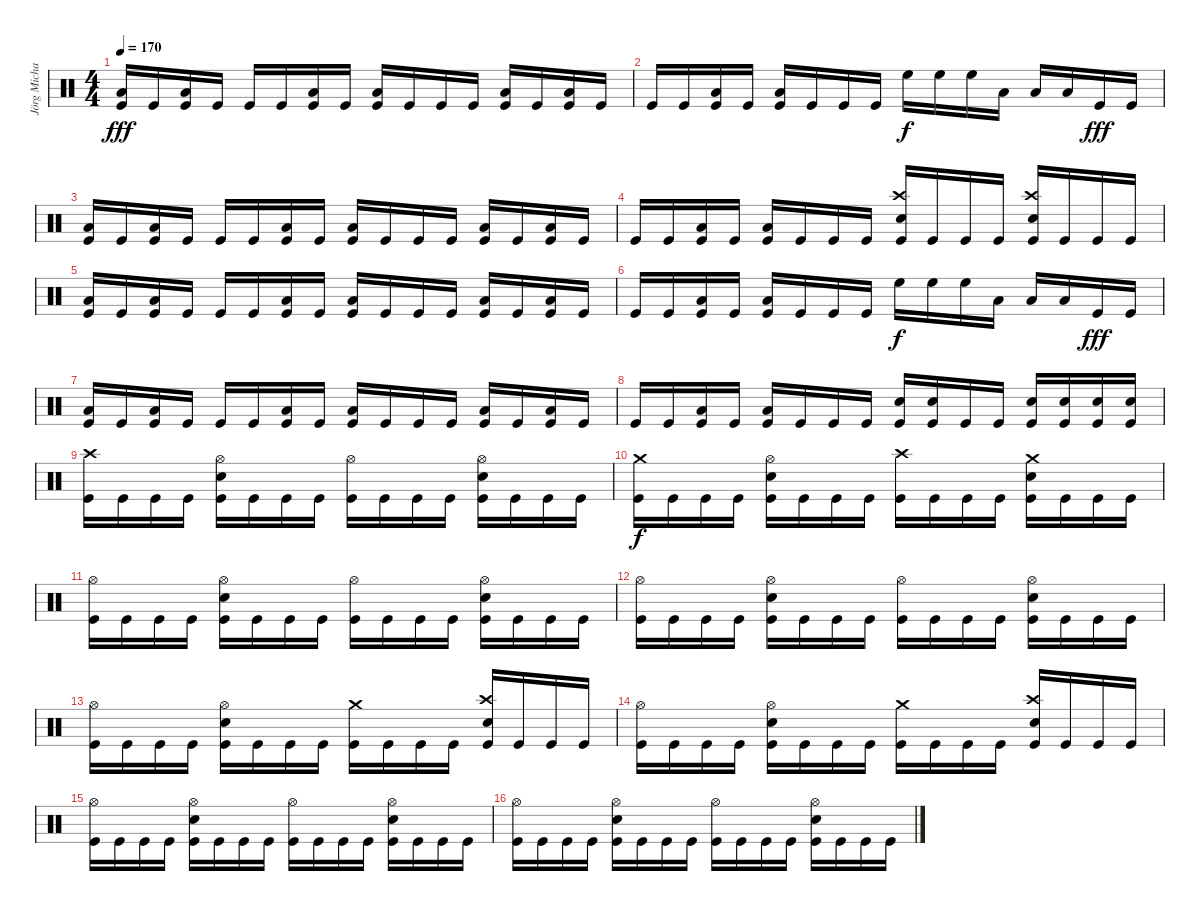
\track ("Jörg Michael" "Jörg Micha") {instrument percussion}
\staff {score}
\articulation defaults
\ts (4 4)
\tempo 170
\clef neutral
\ks c
("Low Floor Tom (hit)" "Kick (hit)").16{dy fff} "Kick (hit)".16 ("Low Floor Tom (hit)" "Kick (hit)").16 "Kick (hit)".16 "Kick (hit)".16 "Kick (hit)".16 ("Low Floor Tom (hit)" "Kick (hit)").16 "Kick (hit)".16 ("Low Floor Tom (hit)" "Kick (hit)").16 "Kick (hit)".16 "Kick (hit)".16 "Kick (hit)".16 ("Low Floor Tom (hit)" "Kick (hit)").16 "Kick (hit)".16 ("Low Floor Tom (hit)" "Kick (hit)").16 "Kick (hit)".16 |
"Kick (hit)".16 "Kick (hit)".16 ("Low Floor Tom (hit)" "Kick (hit)").16 "Kick (hit)".16 ("Low Floor Tom (hit)" "Kick (hit)").16 "Kick (hit)".16 "Kick (hit)".16 "Kick (hit)".16 "High Floor Tom (hit)".16{dy f} "High Floor Tom (hit)".16 "High Floor Tom (hit)".16 "Low Tom (hit)".16 "Low Tom (hit)".16 "Low Tom (hit)".16 "Kick (hit)".16{dy fff} "Kick (hit)".16 |
("Low Floor Tom (hit)" "Kick (hit)").16 "Kick (hit)".16 ("Low Floor Tom (hit)" "Kick (hit)").16 "Kick (hit)".16 "Kick (hit)".16 "Kick (hit)".16 ("Low Floor Tom (hit)" "Kick (hit)").16 "Kick (hit)".16 ("Low Floor Tom (hit)" "Kick (hit)").16 "Kick (hit)".16 "Kick (hit)".16 "Kick (hit)".16 ("Low Floor Tom (hit)" "Kick (hit)").16 "Kick (hit)".16 ("Low Floor Tom (hit)" "Kick (hit)").16 "Kick (hit)".16 |
"Kick (hit)".16 "Kick (hit)".16 ("Low Floor Tom (hit)" "Kick (hit)").16 "Kick (hit)".16 ("Low Floor Tom (hit)" "Kick (hit)").16 "Kick (hit)".16 "Kick (hit)".16 "Kick (hit)".16 ("Crash high (hit)" "Electric Snare (hit)" "Kick (hit)").16 "Kick (hit)".16 "Kick (hit)".16 "Kick (hit)".16 ("Crash high (hit)" "Electric Snare (hit)" "Kick (hit)").16 "Kick (hit)".16 "Kick (hit)".16 "Kick (hit)".16 |
("Low Floor Tom (hit)" "Kick (hit)").16 "Kick (hit)".16 ("Low Floor Tom (hit)" "Kick (hit)").16 "Kick (hit)".16 "Kick (hit)".16 "Kick (hit)".16 ("Low Floor Tom (hit)" "Kick (hit)").16 "Kick (hit)".16 ("Low Floor Tom (hit)" "Kick (hit)").16 "Kick (hit)".16 "Kick (hit)".16 "Kick (hit)".16 ("Low Floor Tom (hit)" "Kick (hit)").16 "Kick (hit)".16 ("Low Floor Tom (hit)" "Kick (hit)").16 "Kick (hit)".16 |
"Kick (hit)".16 "Kick (hit)".16 ("Low Floor Tom (hit)" "Kick (hit)").16 "Kick (hit)".16 ("Low Floor Tom (hit)" "Kick (hit)").16 "Kick (hit)".16 "Kick (hit)".16 "Kick (hit)".16 "High Floor Tom (hit)".16{dy f} "High Floor Tom (hit)".16 "High Floor Tom (hit)".16 "Low Tom (hit)".16 "Low Tom (hit)".16 "Low Tom (hit)".16 "Kick (hit)".16{dy fff} "Kick (hit)".16 |
("Low Floor Tom (hit)" "Kick (hit)").16 "Kick (hit)".16 ("Low Floor Tom (hit)" "Kick (hit)").16 "Kick (hit)".16 "Kick (hit)".16 "Kick (hit)".16 ("Low Floor Tom (hit)" "Kick (hit)").16 "Kick (hit)".16 ("Low Floor Tom (hit)" "Kick (hit)").16 "Kick (hit)".16 "Kick (hit)".16 "Kick (hit)".16 ("Low Floor Tom (hit)" "Kick (hit)").16 "Kick (hit)".16 ("Low Floor Tom (hit)" "Kick (hit)").16 "Kick (hit)".16 |
"Kick (hit)".16 "Kick (hit)".16 ("Low Floor Tom (hit)" "Kick (hit)").16 "Kick (hit)".16 ("Low Floor Tom (hit)" "Kick (hit)").16 "Kick (hit)".16 "Kick (hit)".16 "Kick (hit)".16 ("Electric Snare (hit)" "Kick (hit)").16 ("Electric Snare (hit)" "Kick (hit)").16 "Kick (hit)".16 "Kick (hit)".16 ("Electric Snare (hit)" "Kick (hit)").16 ("Electric Snare (hit)" "Kick (hit)").16 ("Electric Snare (hit)" "Kick (hit)").16 ("Electric Snare (hit)" "Kick (hit)").16 |
("Crash high (hit)" "Kick (hit)").16 "Kick (hit)".16 "Kick (hit)".16 "Kick (hit)".16 ("Hi-Hat (open)" "Electric Snare (hit)" "Kick (hit)").16 "Kick (hit)".16 "Kick (hit)".16 "Kick (hit)".16 ("Hi-Hat (open)" "Kick (hit)").16 "Kick (hit)".16 "Kick (hit)".16 "Kick (hit)".16 ("Hi-Hat (open)" "Electric Snare (hit)" "Kick (hit)").16 "Kick (hit)".16 "Kick (hit)".16 "Kick (hit)".16 |
("Crash medium (hit)" "Kick (hit)").16{dy f} "Kick (hit)".16 "Kick (hit)".16 "Kick (hit)".16 ("Hi-Hat (open)" "Electric Snare (hit)" "Kick (hit)").16 "Kick (hit)".16 "Kick (hit)".16 "Kick (hit)".16 ("Crash high (hit)" "Kick (hit)").16 "Kick (hit)".16 "Kick (hit)".16 "Kick (hit)".16 ("Crash medium (hit)" "Electric Snare (hit)" "Kick (hit)").16 "Kick (hit)".16 "Kick (hit)".16 "Kick (hit)".16 |
("Hi-Hat (open)" "Kick (hit)").16 "Kick (hit)".16 "Kick (hit)".16 "Kick (hit)".16 ("Hi-Hat (open)" "Electric Snare (hit)" "Kick (hit)").16 "Kick (hit)".16 "Kick (hit)".16 "Kick (hit)".16 ("Hi-Hat (open)" "Kick (hit)").16 "Kick (hit)".16 "Kick (hit)".16 "Kick (hit)".16 ("Hi-Hat (open)" "Electric Snare (hit)" "Kick (hit)").16 "Kick (hit)".16 "Kick (hit)".16 "Kick (hit)".16 |
("Hi-Hat (open)" "Kick (hit)").16 "Kick (hit)".16 "Kick (hit)".16 "Kick (hit)".16 ("Hi-Hat (open)" "Electric Snare (hit)" "Kick (hit)").16 "Kick (hit)".16 "Kick (hit)".16 "Kick (hit)".16 ("Hi-Hat (open)" "Kick (hit)").16 "Kick (hit)".16 "Kick (hit)".16 "Kick (hit)".16 ("Hi-Hat (open)" "Electric Snare (hit)" "Kick (hit)").16 "Kick (hit)".16 "Kick (hit)".16 "Kick (hit)".16 |
("Hi-Hat (open)" "Kick (hit)").16 "Kick (hit)".16 "Kick (hit)".16 "Kick (hit)".16 ("Hi-Hat (open)" "Electric Snare (hit)" "Kick (hit)").16 "Kick (hit)".16 "Kick (hit)".16 "Kick (hit)".16 ("Crash medium (hit)" "Kick (hit)").16 "Kick (hit)".16 "Kick (hit)".16 "Kick (hit)".16 ("Crash high (hit)" "Electric Snare (hit)" "Kick (hit)").16 "Kick (hit)".16 "Kick (hit)".16 "Kick (hit)".16 |
("Hi-Hat (open)" "Kick (hit)").16 "Kick (hit)".16 "Kick (hit)".16 "Kick (hit)".16 ("Hi-Hat (open)" "Electric Snare (hit)" "Kick (hit)").16 "Kick (hit)".16 "Kick (hit)".16 "Kick (hit)".16 ("Crash medium (hit)" "Kick (hit)").16 "Kick (hit)".16 "Kick (hit)".16 "Kick (hit)".16 ("Crash high (hit)" "Electric Snare (hit)" "Kick (hit)").16 "Kick (hit)".16 "Kick (hit)".16 "Kick (hit)".16 |
("Hi-Hat (open)" "Kick (hit)").16 "Kick (hit)".16 "Kick (hit)".16 "Kick (hit)".16 ("Hi-Hat (open)" "Electric Snare (hit)" "Kick (hit)").16 "Kick (hit)".16 "Kick (hit)".16 "Kick (hit)".16 ("Hi-Hat (open)" "Kick (hit)").16 "Kick (hit)".16 "Kick (hit)".16 "Kick (hit)".16 ("Hi-Hat (open)" "Electric Snare (hit)" "Kick (hit)").16 "Kick (hit)".16 "Kick (hit)".16 "Kick (hit)".16 |
("Hi-Hat (open)" "Kick (hit)").16 "Kick (hit)".16 "Kick (hit)".16 "Kick (hit)".16 ("Hi-Hat (open)" "Electric Snare (hit)" "Kick (hit)").16 "Kick (hit)".16 "Kick (hit)".16 "Kick (hit)".16 ("Hi-Hat (open)" "Kick (hit)").16 "Kick (hit)".16 "Kick (hit)".16 "Kick (hit)".16 ("Hi-Hat (open)" "Electric Snare (hit)" "Kick (hit)").16 "Kick (hit)".16 "Kick (hit)".16 "Kick (hit)".16
